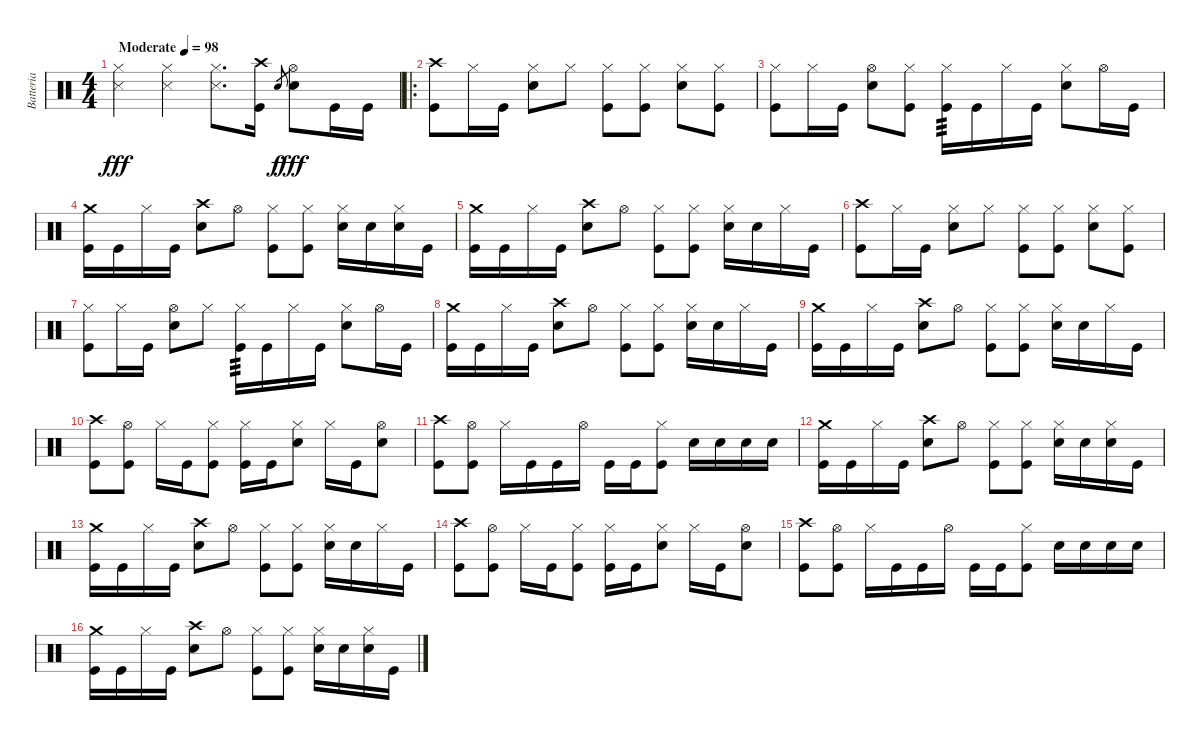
\track ("Batteria" "Batteria") {instrument percussion}
\staff {score}
\articulation defaults
\ts (4 4)
\tempo (98 "Moderate")
\clef neutral
\ks c
("Snare (side stick) 3" "Hi-Hat (closed)").4{dy fff} ("Snare (side stick) 3" "Hi-Hat (closed)").4 ("Snare (side stick) 3" "Hi-Hat (closed)").8{d} ("Kick (hit)" "Crash high (hit)").16 "Electric Snare (hit)".8{gr dy f} ("Electric Snare (hit)" "Hi-Hat (open)").8{dy fff} "Kick (hit)".16 "Kick (hit)".16 |
\ro
("Kick (hit)" "Crash high (hit)").8 "Hi-Hat (closed)".16 "Kick (hit)".16 ("Hi-Hat (closed)" "Electric Snare (hit)").8 "Hi-Hat (closed)".8 ("Hi-Hat (closed)" "Kick (hit)").8 ("Kick (hit)" "Hi-Hat (closed)").8 ("Hi-Hat (closed)" "Electric Snare (hit)").8 ("Hi-Hat (closed)" "Kick (hit)").8 |
("Kick (hit)" "Hi-Hat (closed)").8 "Hi-Hat (closed)".16 "Kick (hit)".16 ("Hi-Hat (open)" "Electric Snare (hit)").8 ("Hi-Hat (closed)" "Kick (hit)").8 ("Kick (hit)" "Hi-Hat (closed)").16{tp 3} "Kick (hit)".16 "Hi-Hat (closed)".16 "Kick (hit)".16 ("Hi-Hat (closed)" "Electric Snare (hit)").8 "Hi-Hat (open)".16 "Kick (hit)".16 |
("Kick (hit)" "Crash medium (hit)").16 "Kick (hit)".16 "Hi-Hat (closed)".16 "Kick (hit)".16 ("Crash high (hit)" "Electric Snare (hit)").8 "Hi-Hat (open)".8 ("Hi-Hat (closed)" "Kick (hit)").8 ("Kick (hit)" "Hi-Hat (closed)").8 ("Hi-Hat (closed)" "Electric Snare (hit)").16 "Electric Snare (hit)".16 ("Hi-Hat (closed)" "Electric Snare (hit)").16 "Kick (hit)".16 |
("Kick (hit)" "Crash medium (hit)").16 "Kick (hit)".16 "Hi-Hat (closed)".16 "Kick (hit)".16 ("Crash high (hit)" "Electric Snare (hit)").8 "Hi-Hat (open)".8 ("Hi-Hat (closed)" "Kick (hit)").8 ("Kick (hit)" "Hi-Hat (closed)").8 ("Hi-Hat (closed)" "Electric Snare (hit)").16 "Electric Snare (hit)".16 "Hi-Hat (closed)".16 "Kick (hit)".16 |
("Kick (hit)" "Crash high (hit)").8 "Hi-Hat (closed)".16 "Kick (hit)".16 ("Hi-Hat (closed)" "Electric Snare (hit)").8 "Hi-Hat (closed)".8 ("Hi-Hat (closed)" "Kick (hit)").8 ("Kick (hit)" "Hi-Hat (closed)").8 ("Hi-Hat (closed)" "Electric Snare (hit)").8 ("Hi-Hat (closed)" "Kick (hit)").8 |
("Kick (hit)" "Hi-Hat (closed)").8 "Hi-Hat (closed)".16 "Kick (hit)".16 ("Hi-Hat (open)" "Electric Snare (hit)").8 "Hi-Hat (closed)".8 ("Kick (hit)" "Hi-Hat (closed)").16{tp 3} "Kick (hit)".16 "Hi-Hat (closed)".16 "Kick (hit)".16 ("Hi-Hat (closed)" "Electric Snare (hit)").8 "Hi-Hat (open)".16 "Kick (hit)".16 |
("Kick (hit)" "Crash medium (hit)").16 "Kick (hit)".16 "Hi-Hat (closed)".16 "Kick (hit)".16 ("Crash high (hit)" "Electric Snare (hit)").8 "Hi-Hat (open)".8 ("Hi-Hat (closed)" "Kick (hit)").8 ("Kick (hit)" "Hi-Hat (closed)").8 ("Hi-Hat (closed)" "Electric Snare (hit)").16 "Electric Snare (hit)".16 "Hi-Hat (closed)".16 "Kick (hit)".16 |
("Kick (hit)" "Crash medium (hit)").16 "Kick (hit)".16 "Hi-Hat (closed)".16 "Kick (hit)".16 ("Crash high (hit)" "Electric Snare (hit)").8 "Hi-Hat (open)".8 ("Hi-Hat (closed)" "Kick (hit)").8 ("Kick (hit)" "Hi-Hat (closed)").8 ("Hi-Hat (closed)" "Electric Snare (hit)").16 "Electric Snare (hit)".16 "Hi-Hat (closed)".16 "Kick (hit)".16 |
("Kick (hit)" "Crash high (hit)").8 ("Hi-Hat (open)" "Kick (hit)").8 "Hi-Hat (closed)".16 "Kick (hit)".16 ("Kick (hit)" "Hi-Hat (closed)").8 ("Hi-Hat (closed)" "Kick (hit)").16 "Kick (hit)".16 ("Hi-Hat (closed)" "Electric Snare (hit)").8 "Hi-Hat (closed)".16 "Kick (hit)".16 ("Electric Snare (hit)" "Hi-Hat (open)").8 |
("Kick (hit)" "Crash high (hit)").8 ("Kick (hit)" "Hi-Hat (open)").8 "Hi-Hat (closed)".16 "Kick (hit)".16 "Kick (hit)".16 "Hi-Hat (open)".16 "Kick (hit)".16 "Kick (hit)".16 ("Kick (hit)" "Hi-Hat (closed)").8 "Electric Snare (hit)".16 "Electric Snare (hit)".16 "Electric Snare (hit)".16 "Electric Snare (hit)".16 |
("Kick (hit)" "Crash medium (hit)").16 "Kick (hit)".16 "Hi-Hat (closed)".16 "Kick (hit)".16 ("Crash high (hit)" "Electric Snare (hit)").8 "Hi-Hat (open)".8 ("Hi-Hat (closed)" "Kick (hit)").8 ("Kick (hit)" "Hi-Hat (closed)").8 ("Hi-Hat (closed)" "Electric Snare (hit)").16 "Electric Snare (hit)".16 ("Hi-Hat (closed)" "Electric Snare (hit)").16 "Kick (hit)".16 |
("Kick (hit)" "Crash medium (hit)").16 "Kick (hit)".16 "Hi-Hat (closed)".16 "Kick (hit)".16 ("Crash high (hit)" "Electric Snare (hit)").8 "Hi-Hat (open)".8 ("Hi-Hat (closed)" "Kick (hit)").8 ("Kick (hit)" "Hi-Hat (closed)").8 ("Hi-Hat (closed)" "Electric Snare (hit)").16 "Electric Snare (hit)".16 "Hi-Hat (closed)".16 "Kick (hit)".16 |
("Kick (hit)" "Crash high (hit)").8 ("Hi-Hat (open)" "Kick (hit)").8 "Hi-Hat (closed)".16 "Kick (hit)".16 ("Kick (hit)" "Hi-Hat (closed)").8 ("Hi-Hat (closed)" "Kick (hit)").16 "Kick (hit)".16 ("Hi-Hat (closed)" "Electric Snare (hit)").8 "Hi-Hat (closed)".16 "Kick (hit)".16 ("Electric Snare (hit)" "Hi-Hat (open)").8 |
("Kick (hit)" "Crash high (hit)").8 ("Kick (hit)" "Hi-Hat (open)").8 "Hi-Hat (closed)".16 "Kick (hit)".16 "Kick (hit)".16 "Hi-Hat (open)".16 "Kick (hit)".16 "Kick (hit)".16 ("Kick (hit)" "Hi-Hat (closed)").8 "Electric Snare (hit)".16 "Electric Snare (hit)".16 "Electric Snare (hit)".16 "Electric Snare (hit)".16 |
("Kick (hit)" "Crash medium (hit)").16 "Kick (hit)".16 "Hi-Hat (closed)".16 "Kick (hit)".16 ("Crash high (hit)" "Electric Snare (hit)").8 "Hi-Hat (open)".8 ("Hi-Hat (closed)" "Kick (hit)").8 ("Kick (hit)" "Hi-Hat (closed)").8 ("Hi-Hat (closed)" "Electric Snare (hit)").16 "Electric Snare (hit)".16 ("Hi-Hat (closed)" "Electric Snare (hit)").16 "Kick (hit)".16
